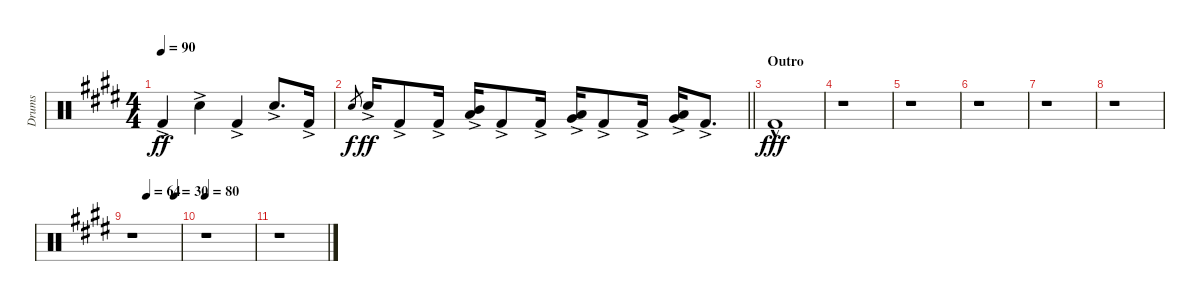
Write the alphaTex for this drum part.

\track ("Drums" "Drums") {instrument percussion}
\staff {score}
\articulation defaults
\ts (4 4)
\tempo 90
\clef neutral
\ks e "Kick (hit) 2"{ac}.4{dy ff} "Electric Snare (hit)"{ac}.4 "Kick (hit) 2"{ac}.4 "Electric Snare (hit)"{ac}.8{d} "Kick (hit) 2"{ac}.16
|
\barLineRight lightlight "Snare (hit) 2".8{gr dy f} "Electric Snare (hit)"{ac}.16{dy ff} "Kick (hit) 2"{ac}.8 "Kick (hit) 2"{ac}.16
("Mid Tom (hit)"{ac} "Low Tom (hit)"{ac}).16 "Kick (hit) 2"{ac}.8 "Kick (hit) 2"{ac}.16 ("Very Low Tom (hit)"{ac} "Low Tom (hit)"{ac}).16 "Kick (hit) 2"{ac}.8 "Kick (hit) 2"{ac}.16 ("Very Low Tom (hit)"{ac} "Low Floor Tom (hit)"{ac}).16 "Kick (hit) 2"{ac}.8{d} |
\section ("" "Outro")
"Kick (hit) 2"{hac}.1{dy fff} |
r.1 |
r.1 |
r.1 |
r.1 |
r.1 |
\tempo (64 0.3125)
\tempo (30 0.875)
r.1 |
\tempo 80
r.1 |
r.1
